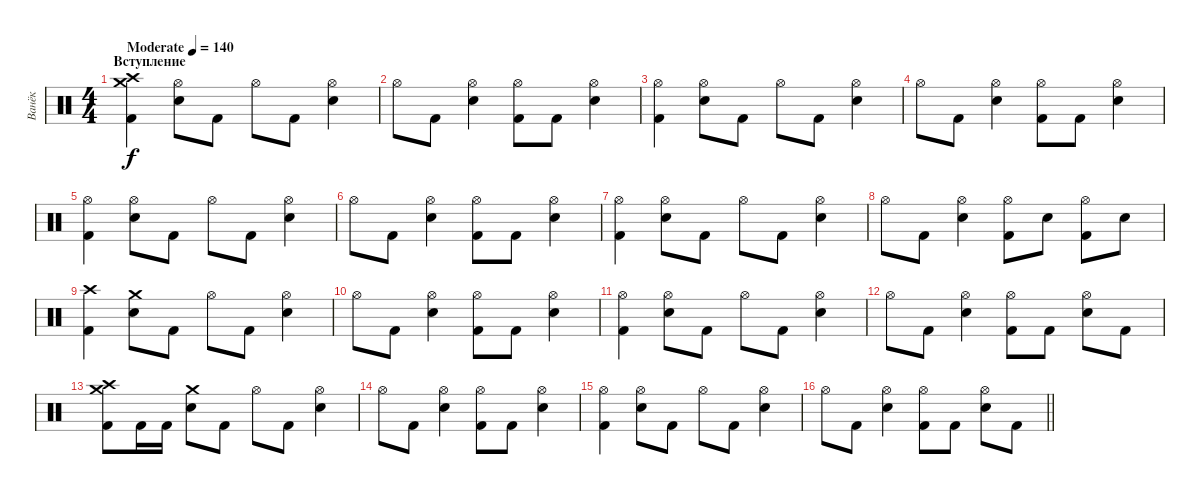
\track ("Ванёк" "Ванёк") {instrument percussion}
\staff {score}
\articulation defaults
\ts (4 4)
\section ("" "Вступление")
\tempo (140 "Moderate")
\clef neutral
\ks c
("Crash high (hit)" "Crash medium (hit)" "Kick (hit) 2").4{dy f} ("Hi-Hat (open)" "Electric Snare (hit)").8 "Kick (hit) 2".8 "Hi-Hat (open)".8 "Kick (hit) 2".8 ("Hi-Hat (open)" "Electric Snare (hit)").4 |
"Hi-Hat (open)".8 "Kick (hit) 2".8 ("Hi-Hat (open)" "Electric Snare (hit)").4 ("Hi-Hat (open)" "Kick (hit) 2").8 "Kick (hit) 2".8 ("Hi-Hat (open)" "Electric Snare (hit)").4 |
("Hi-Hat (open)" "Kick (hit) 2").4 ("Hi-Hat (open)" "Electric Snare (hit)").8 "Kick (hit) 2".8 "Hi-Hat (open)".8 "Kick (hit) 2".8 ("Hi-Hat (open)" "Electric Snare (hit)").4 |
"Hi-Hat (open)".8 "Kick (hit) 2".8 ("Hi-Hat (open)" "Electric Snare (hit)").4 ("Hi-Hat (open)" "Kick (hit) 2").8 "Kick (hit) 2".8 ("Hi-Hat (open)" "Electric Snare (hit)").4 |
("Hi-Hat (open)" "Kick (hit) 2").4 ("Hi-Hat (open)" "Electric Snare (hit)").8 "Kick (hit) 2".8 "Hi-Hat (open)".8 "Kick (hit) 2".8 ("Hi-Hat (open)" "Electric Snare (hit)").4 |
"Hi-Hat (open)".8 "Kick (hit) 2".8 ("Hi-Hat (open)" "Electric Snare (hit)").4 ("Hi-Hat (open)" "Kick (hit) 2").8 "Kick (hit) 2".8 ("Hi-Hat (open)" "Electric Snare (hit)").4 |
("Hi-Hat (open)" "Kick (hit) 2").4 ("Hi-Hat (open)" "Electric Snare (hit)").8 "Kick (hit) 2".8 "Hi-Hat (open)".8 "Kick (hit) 2".8 ("Hi-Hat (open)" "Electric Snare (hit)").4 |
"Hi-Hat (open)".8 "Kick (hit) 2".8 ("Hi-Hat (open)" "Electric Snare (hit)").4 ("Hi-Hat (open)" "Kick (hit) 2").8 "Electric Snare (hit)".8 ("Hi-Hat (open)" "Kick (hit) 2").8 "Electric Snare (hit)".8 |
("Crash high (hit)" "Kick (hit) 2").4 ("Crash medium (hit)" "Electric Snare (hit)").8 "Kick (hit) 2".8 "Hi-Hat (open)".8 "Kick (hit) 2".8 ("Hi-Hat (open)" "Electric Snare (hit)").4 |
"Hi-Hat (open)".8 "Kick (hit) 2".8 ("Hi-Hat (open)" "Electric Snare (hit)").4 ("Hi-Hat (open)" "Kick (hit) 2").8 "Kick (hit) 2".8 ("Hi-Hat (open)" "Electric Snare (hit)").4 |
("Hi-Hat (open)" "Kick (hit) 2").4 ("Hi-Hat (open)" "Electric Snare (hit)").8 "Kick (hit) 2".8 "Hi-Hat (open)".8 "Kick (hit) 2".8 ("Hi-Hat (open)" "Electric Snare (hit)").4 |
"Hi-Hat (open)".8 "Kick (hit) 2".8 ("Hi-Hat (open)" "Electric Snare (hit)").4 ("Hi-Hat (open)" "Kick (hit) 2").8 "Kick (hit) 2".8 ("Hi-Hat (open)" "Electric Snare (hit)").8 "Kick (hit) 2".8 |
("Crash high (hit)" "Crash medium (hit)" "Kick (hit) 2").8 "Kick (hit) 2".16 "Kick (hit) 2".16 ("Crash medium (hit)" "Electric Snare (hit)").8 "Kick (hit) 2".8 "Hi-Hat (open)".8 "Kick (hit) 2".8 ("Hi-Hat (open)" "Electric Snare (hit)").4 |
"Hi-Hat (open)".8 "Kick (hit) 2".8 ("Hi-Hat (open)" "Electric Snare (hit)").4 ("Hi-Hat (open)" "Kick (hit) 2").8 "Kick (hit) 2".8 ("Hi-Hat (open)" "Electric Snare (hit)").4 |
("Hi-Hat (open)" "Kick (hit) 2").4 ("Hi-Hat (open)" "Electric Snare (hit)").8 "Kick (hit) 2".8 "Hi-Hat (open)".8 "Kick (hit) 2".8 ("Hi-Hat (open)" "Electric Snare (hit)").4 |
\barLineRight lightlight "Hi-Hat (open)".8 "Kick (hit) 2".8
("Hi-Hat (open)" "Electric Snare (hit)").4 ("Hi-Hat (open)" "Kick (hit) 2").8 "Kick (hit) 2".8 ("Hi-Hat (open)" "Electric Snare (hit)").8 "Kick (hit) 2".8
